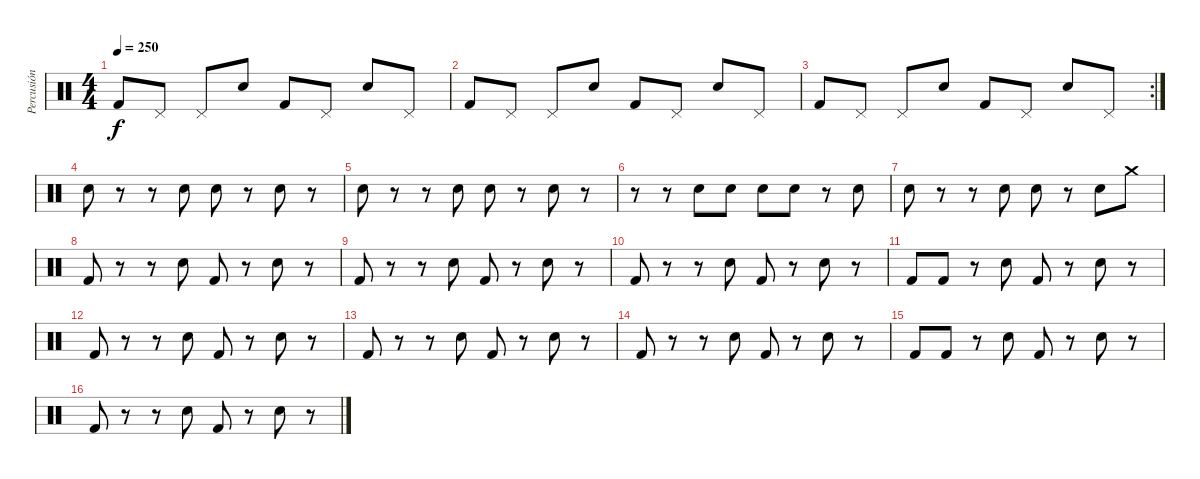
\track ("Percusión" "Percusión") {instrument percussion}
\staff {score}
\articulation defaults
\ts (4 4)
\tempo 250
\clef neutral
\ks c "Kick (hit) 2".8{dy f} "Pedal Hi-Hat (hit)".8 "Pedal Hi-Hat (hit)".8 "Electric Snare (hit)".8 "Kick (hit) 2".8 "Pedal Hi-Hat (hit)".8 "Electric Snare (hit)".8 "Pedal Hi-Hat (hit)".8
|
"Kick (hit) 2".8 "Pedal Hi-Hat (hit)".8 "Pedal Hi-Hat (hit)".8 "Electric Snare (hit)".8 "Kick (hit) 2".8 "Pedal Hi-Hat (hit)".8 "Electric Snare (hit)".8 "Pedal Hi-Hat (hit)".8 |
\rc 2 "Kick (hit) 2".8 "Pedal Hi-Hat (hit)".8 "Pedal Hi-Hat (hit)".8 "Electric Snare (hit)".8 "Kick (hit) 2".8 "Pedal Hi-Hat (hit)".8 "Electric Snare (hit)".8 "Pedal Hi-Hat (hit)".8
|
"Electric Snare (hit)".8 r.8 r.8 "Electric Snare (hit)".8 "Electric Snare (hit)".8 r.8 "Electric Snare (hit)".8 r.8 |
"Electric Snare (hit)".8 r.8 r.8 "Electric Snare (hit)".8 "Electric Snare (hit)".8 r.8 "Electric Snare (hit)".8 r.8 |
r.8 r.8 "Electric Snare (hit)".8 "Electric Snare (hit)".8 "Electric Snare (hit)".8 "Electric Snare (hit)".8 r.8 "Electric Snare (hit)".8 |
"Electric Snare (hit)".8 r.8 r.8 "Electric Snare (hit)".8 "Electric Snare (hit)".8 r.8 "Electric Snare (hit)".8 "Crash medium (hit)".8 |
"Kick (hit) 2".8 r.8 r.8 "Electric Snare (hit)".8 "Kick (hit) 2".8 r.8 "Electric Snare (hit)".8 r.8 |
"Kick (hit) 2".8 r.8 r.8 "Electric Snare (hit)".8 "Kick (hit) 2".8 r.8 "Electric Snare (hit)".8 r.8 |
"Kick (hit) 2".8 r.8 r.8 "Electric Snare (hit)".8 "Kick (hit) 2".8 r.8 "Electric Snare (hit)".8 r.8 |
"Kick (hit) 2".8 "Kick (hit) 2".8 r.8 "Electric Snare (hit)".8 "Kick (hit) 2".8 r.8 "Electric Snare (hit)".8 r.8 |
"Kick (hit) 2".8 r.8 r.8 "Electric Snare (hit)".8 "Kick (hit) 2".8 r.8 "Electric Snare (hit)".8 r.8 |
"Kick (hit) 2".8 r.8 r.8 "Electric Snare (hit)".8 "Kick (hit) 2".8 r.8 "Electric Snare (hit)".8 r.8 |
"Kick (hit) 2".8 r.8 r.8 "Electric Snare (hit)".8 "Kick (hit) 2".8 r.8 "Electric Snare (hit)".8 r.8 |
"Kick (hit) 2".8 "Kick (hit) 2".8 r.8 "Electric Snare (hit)".8 "Kick (hit) 2".8 r.8 "Electric Snare (hit)".8 r.8 |
"Kick (hit) 2".8 r.8 r.8 "Electric Snare (hit)".8 "Kick (hit) 2".8 r.8 "Electric Snare (hit)".8 r.8
